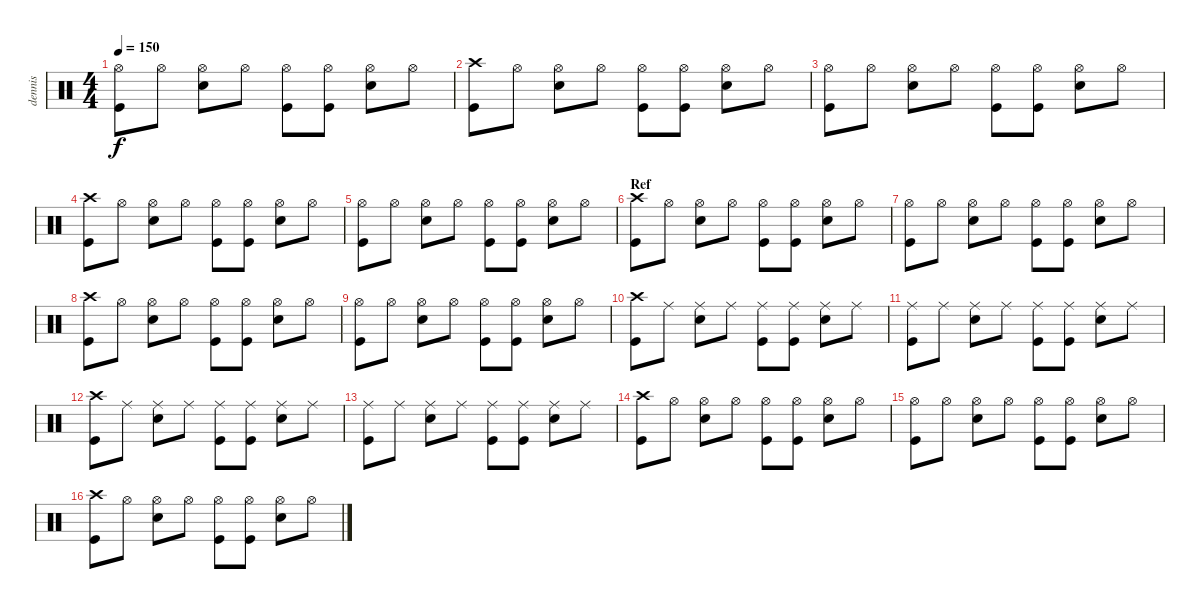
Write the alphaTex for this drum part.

\track ("dennis" "dennis") {instrument percussion}
\staff {score}
\articulation defaults
\ts (4 4)
\tempo 150
\clef neutral
\ks c
("Hi-Hat (open)" "Kick (hit)").8{dy f} "Hi-Hat (open)".8 ("Hi-Hat (open)" "Electric Snare (hit)").8 "Hi-Hat (open)".8 ("Hi-Hat (open)" "Kick (hit)").8 ("Hi-Hat (open)" "Kick (hit)").8 ("Hi-Hat (open)" "Electric Snare (hit)").8 "Hi-Hat (open)".8 |
("Crash high (hit)" "Kick (hit)").8 "Hi-Hat (open)".8 ("Hi-Hat (open)" "Electric Snare (hit)").8 "Hi-Hat (open)".8 ("Hi-Hat (open)" "Kick (hit)").8 ("Hi-Hat (open)" "Kick (hit)").8 ("Hi-Hat (open)" "Electric Snare (hit)").8 "Hi-Hat (open)".8 |
("Hi-Hat (open)" "Kick (hit)").8 "Hi-Hat (open)".8 ("Hi-Hat (open)" "Electric Snare (hit)").8 "Hi-Hat (open)".8 ("Hi-Hat (open)" "Kick (hit)").8 ("Hi-Hat (open)" "Kick (hit)").8 ("Hi-Hat (open)" "Electric Snare (hit)").8 "Hi-Hat (open)".8 |
("Crash high (hit)" "Kick (hit)").8 "Hi-Hat (open)".8 ("Hi-Hat (open)" "Electric Snare (hit)").8 "Hi-Hat (open)".8 ("Hi-Hat (open)" "Kick (hit)").8 ("Hi-Hat (open)" "Kick (hit)").8 ("Hi-Hat (open)" "Electric Snare (hit)").8 "Hi-Hat (open)".8 |
("Hi-Hat (open)" "Kick (hit)").8 "Hi-Hat (open)".8 ("Hi-Hat (open)" "Electric Snare (hit)").8 "Hi-Hat (open)".8 ("Hi-Hat (open)" "Kick (hit)").8 ("Hi-Hat (open)" "Kick (hit)").8 ("Hi-Hat (open)" "Electric Snare (hit)").8 "Hi-Hat (open)".8 |
\section ("" "Ref")
("Crash high (hit)" "Kick (hit)").8 "Hi-Hat (open)".8 ("Hi-Hat (open)" "Electric Snare (hit)").8 "Hi-Hat (open)".8 ("Hi-Hat (open)" "Kick (hit)").8 ("Hi-Hat (open)" "Kick (hit)").8 ("Hi-Hat (open)" "Electric Snare (hit)").8 "Hi-Hat (open)".8 |
("Hi-Hat (open)" "Kick (hit)").8 "Hi-Hat (open)".8 ("Hi-Hat (open)" "Electric Snare (hit)").8 "Hi-Hat (open)".8 ("Hi-Hat (open)" "Kick (hit)").8 ("Hi-Hat (open)" "Kick (hit)").8 ("Hi-Hat (open)" "Electric Snare (hit)").8 "Hi-Hat (open)".8 |
("Crash high (hit)" "Kick (hit)").8 "Hi-Hat (open)".8 ("Hi-Hat (open)" "Electric Snare (hit)").8 "Hi-Hat (open)".8 ("Hi-Hat (open)" "Kick (hit)").8 ("Hi-Hat (open)" "Kick (hit)").8 ("Hi-Hat (open)" "Electric Snare (hit)").8 "Hi-Hat (open)".8 |
("Hi-Hat (open)" "Kick (hit)").8 "Hi-Hat (open)".8 ("Hi-Hat (open)" "Electric Snare (hit)").8 "Hi-Hat (open)".8 ("Hi-Hat (open)" "Kick (hit)").8 ("Hi-Hat (open)" "Kick (hit)").8 ("Hi-Hat (open)" "Electric Snare (hit)").8 "Hi-Hat (open)".8 |
("Crash high (hit)" "Kick (hit)").8 "Ride (middle)".8 ("Ride (middle)" "Electric Snare (hit)").8 "Ride (middle)".8 ("Ride (middle)" "Kick (hit)").8 ("Ride (middle)" "Kick (hit)").8 ("Ride (middle)" "Electric Snare (hit)").8 "Ride (middle)".8 |
("Ride (middle)" "Kick (hit)").8 "Ride (middle)".8 ("Ride (middle)" "Electric Snare (hit)").8 "Ride (middle)".8 ("Ride (middle)" "Kick (hit)").8 ("Ride (middle)" "Kick (hit)").8 ("Ride (middle)" "Electric Snare (hit)").8 "Ride (middle)".8 |
("Crash high (hit)" "Kick (hit)").8 "Ride (middle)".8 ("Ride (middle)" "Electric Snare (hit)").8 "Ride (middle)".8 ("Ride (middle)" "Kick (hit)").8 ("Ride (middle)" "Kick (hit)").8 ("Ride (middle)" "Electric Snare (hit)").8 "Ride (middle)".8 |
("Ride (middle)" "Kick (hit)").8 "Ride (middle)".8 ("Ride (middle)" "Electric Snare (hit)").8 "Ride (middle)".8 ("Ride (middle)" "Kick (hit)").8 ("Ride (middle)" "Kick (hit)").8 ("Ride (middle)" "Electric Snare (hit)").8 "Ride (middle)".8 |
("Crash high (hit)" "Kick (hit)").8 "Hi-Hat (open)".8 ("Hi-Hat (open)" "Electric Snare (hit)").8 "Hi-Hat (open)".8 ("Hi-Hat (open)" "Kick (hit)").8 ("Hi-Hat (open)" "Kick (hit)").8 ("Hi-Hat (open)" "Electric Snare (hit)").8 "Hi-Hat (open)".8 |
("Hi-Hat (open)" "Kick (hit)").8 "Hi-Hat (open)".8 ("Hi-Hat (open)" "Electric Snare (hit)").8 "Hi-Hat (open)".8 ("Hi-Hat (open)" "Kick (hit)").8 ("Hi-Hat (open)" "Kick (hit)").8 ("Hi-Hat (open)" "Electric Snare (hit)").8 "Hi-Hat (open)".8 |
("Crash high (hit)" "Kick (hit)").8 "Hi-Hat (open)".8 ("Hi-Hat (open)" "Electric Snare (hit)").8 "Hi-Hat (open)".8 ("Hi-Hat (open)" "Kick (hit)").8 ("Hi-Hat (open)" "Kick (hit)").8 ("Hi-Hat (open)" "Electric Snare (hit)").8 "Hi-Hat (open)".8
